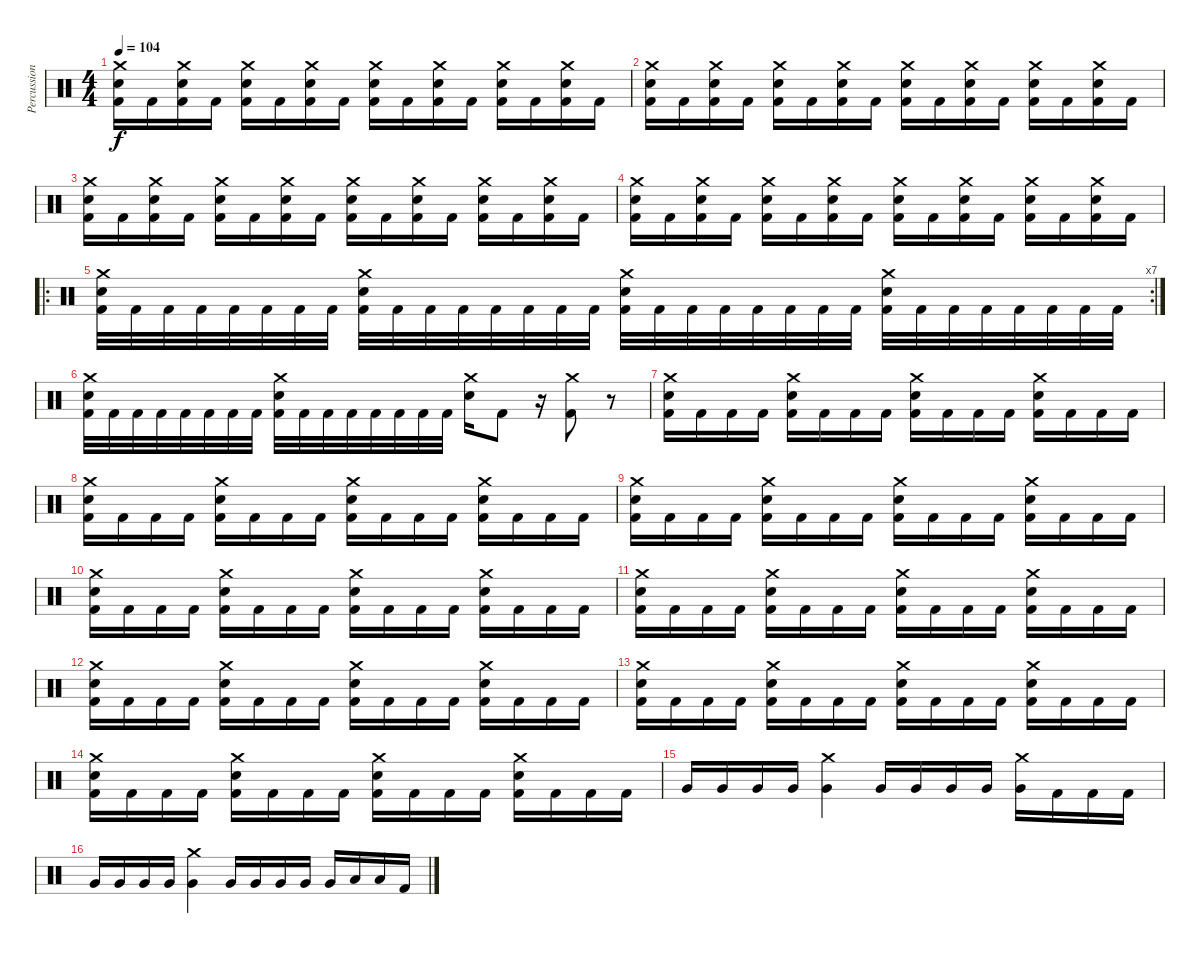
\track ("Percussion" "Percussion") {instrument percussion}
\staff {score}
\articulation defaults
\ts (4 4)
\tempo 104
\clef neutral
\ks c
("Crash medium (hit)" "Snare (hit) 2" "Kick (hit) 2").16{dy f} "Kick (hit) 2".16 ("Crash medium (hit)" "Snare (hit) 2" "Kick (hit) 2").16 "Kick (hit) 2".16 ("Crash medium (hit)" "Snare (hit) 2" "Kick (hit) 2").16 "Kick (hit) 2".16 ("Crash medium (hit)" "Snare (hit) 2" "Kick (hit) 2").16 "Kick (hit) 2".16 ("Crash medium (hit)" "Snare (hit) 2" "Kick (hit) 2").16 "Kick (hit) 2".16 ("Crash medium (hit)" "Snare (hit) 2" "Kick (hit) 2").16 "Kick (hit) 2".16 ("Crash medium (hit)" "Snare (hit) 2" "Kick (hit) 2").16 "Kick (hit) 2".16 ("Crash medium (hit)" "Snare (hit) 2" "Kick (hit) 2").16 "Kick (hit) 2".16 |
("Crash medium (hit)" "Snare (hit) 2" "Kick (hit) 2").16 "Kick (hit) 2".16 ("Crash medium (hit)" "Snare (hit) 2" "Kick (hit) 2").16 "Kick (hit) 2".16 ("Crash medium (hit)" "Snare (hit) 2" "Kick (hit) 2").16 "Kick (hit) 2".16 ("Crash medium (hit)" "Snare (hit) 2" "Kick (hit) 2").16 "Kick (hit) 2".16 ("Crash medium (hit)" "Snare (hit) 2" "Kick (hit) 2").16 "Kick (hit) 2".16 ("Crash medium (hit)" "Snare (hit) 2" "Kick (hit) 2").16 "Kick (hit) 2".16 ("Crash medium (hit)" "Snare (hit) 2" "Kick (hit) 2").16 "Kick (hit) 2".16 ("Crash medium (hit)" "Snare (hit) 2" "Kick (hit) 2").16 "Kick (hit) 2".16 |
("Crash medium (hit)" "Snare (hit) 2" "Kick (hit) 2").16 "Kick (hit) 2".16 ("Crash medium (hit)" "Snare (hit) 2" "Kick (hit) 2").16 "Kick (hit) 2".16 ("Crash medium (hit)" "Snare (hit) 2" "Kick (hit) 2").16 "Kick (hit) 2".16 ("Crash medium (hit)" "Snare (hit) 2" "Kick (hit) 2").16 "Kick (hit) 2".16 ("Crash medium (hit)" "Snare (hit) 2" "Kick (hit) 2").16 "Kick (hit) 2".16 ("Crash medium (hit)" "Snare (hit) 2" "Kick (hit) 2").16 "Kick (hit) 2".16 ("Crash medium (hit)" "Snare (hit) 2" "Kick (hit) 2").16 "Kick (hit) 2".16 ("Crash medium (hit)" "Snare (hit) 2" "Kick (hit) 2").16 "Kick (hit) 2".16 |
("Crash medium (hit)" "Snare (hit) 2" "Kick (hit) 2").16 "Kick (hit) 2".16 ("Crash medium (hit)" "Snare (hit) 2" "Kick (hit) 2").16 "Kick (hit) 2".16 ("Crash medium (hit)" "Snare (hit) 2" "Kick (hit) 2").16 "Kick (hit) 2".16 ("Crash medium (hit)" "Snare (hit) 2" "Kick (hit) 2").16 "Kick (hit) 2".16 ("Crash medium (hit)" "Snare (hit) 2" "Kick (hit) 2").16 "Kick (hit) 2".16 ("Crash medium (hit)" "Snare (hit) 2" "Kick (hit) 2").16 "Kick (hit) 2".16 ("Crash medium (hit)" "Snare (hit) 2" "Kick (hit) 2").16 "Kick (hit) 2".16 ("Crash medium (hit)" "Snare (hit) 2" "Kick (hit) 2").16 "Kick (hit) 2".16 |
\ro
\rc 7
("Crash medium (hit)" "Snare (hit) 2" "Kick (hit) 2").32 "Kick (hit) 2".32 "Kick (hit) 2".32 "Kick (hit) 2".32 "Kick (hit) 2".32 "Kick (hit) 2".32 "Kick (hit) 2".32 "Kick (hit) 2".32 ("Crash medium (hit)" "Snare (hit) 2" "Kick (hit) 2").32 "Kick (hit) 2".32 "Kick (hit) 2".32 "Kick (hit) 2".32 "Kick (hit) 2".32 "Kick (hit) 2".32 "Kick (hit) 2".32 "Kick (hit) 2".32 ("Crash medium (hit)" "Snare (hit) 2" "Kick (hit) 2").32 "Kick (hit) 2".32 "Kick (hit) 2".32 "Kick (hit) 2".32 "Kick (hit) 2".32 "Kick (hit) 2".32 "Kick (hit) 2".32 "Kick (hit) 2".32 ("Crash medium (hit)" "Snare (hit) 2" "Kick (hit) 2").32 "Kick (hit) 2".32 "Kick (hit) 2".32 "Kick (hit) 2".32 "Kick (hit) 2".32 "Kick (hit) 2".32 "Kick (hit) 2".32 "Kick (hit) 2".32 |
("Crash medium (hit)" "Snare (hit) 2" "Kick (hit) 2").32 "Kick (hit) 2".32 "Kick (hit) 2".32 "Kick (hit) 2".32 "Kick (hit) 2".32 "Kick (hit) 2".32 "Kick (hit) 2".32 "Kick (hit) 2".32 ("Crash medium (hit)" "Snare (hit) 2" "Kick (hit) 2").32 "Kick (hit) 2".32 "Kick (hit) 2".32 "Kick (hit) 2".32 "Kick (hit) 2".32 "Kick (hit) 2".32 "Kick (hit) 2".32 "Kick (hit) 2".32 ("Crash medium (hit)" "Snare (hit) 2").16 "Kick (hit) 2".8 r.16 ("Crash medium (hit)" "Kick (hit) 2").8 r.8 |
("Crash medium (hit)" "Snare (hit) 2" "Kick (hit) 2").16 "Kick (hit) 2".16 "Kick (hit) 2".16 "Kick (hit) 2".16 ("Crash medium (hit)" "Snare (hit) 2" "Kick (hit) 2").16 "Kick (hit) 2".16 "Kick (hit) 2".16 "Kick (hit) 2".16 ("Crash medium (hit)" "Snare (hit) 2" "Kick (hit) 2").16 "Kick (hit) 2".16 "Kick (hit) 2".16 "Kick (hit) 2".16 ("Crash medium (hit)" "Snare (hit) 2" "Kick (hit) 2").16 "Kick (hit) 2".16 "Kick (hit) 2".16 "Kick (hit) 2".16 |
("Crash medium (hit)" "Snare (hit) 2" "Kick (hit) 2").16 "Kick (hit) 2".16 "Kick (hit) 2".16 "Kick (hit) 2".16 ("Crash medium (hit)" "Snare (hit) 2" "Kick (hit) 2").16 "Kick (hit) 2".16 "Kick (hit) 2".16 "Kick (hit) 2".16 ("Crash medium (hit)" "Snare (hit) 2" "Kick (hit) 2").16 "Kick (hit) 2".16 "Kick (hit) 2".16 "Kick (hit) 2".16 ("Crash medium (hit)" "Snare (hit) 2" "Kick (hit) 2").16 "Kick (hit) 2".16 "Kick (hit) 2".16 "Kick (hit) 2".16 |
("Crash medium (hit)" "Snare (hit) 2" "Kick (hit) 2").16 "Kick (hit) 2".16 "Kick (hit) 2".16 "Kick (hit) 2".16 ("Crash medium (hit)" "Snare (hit) 2" "Kick (hit) 2").16 "Kick (hit) 2".16 "Kick (hit) 2".16 "Kick (hit) 2".16 ("Crash medium (hit)" "Snare (hit) 2" "Kick (hit) 2").16 "Kick (hit) 2".16 "Kick (hit) 2".16 "Kick (hit) 2".16 ("Crash medium (hit)" "Snare (hit) 2" "Kick (hit) 2").16 "Kick (hit) 2".16 "Kick (hit) 2".16 "Kick (hit) 2".16 |
("Crash medium (hit)" "Snare (hit) 2" "Kick (hit) 2").16 "Kick (hit) 2".16 "Kick (hit) 2".16 "Kick (hit) 2".16 ("Crash medium (hit)" "Snare (hit) 2" "Kick (hit) 2").16 "Kick (hit) 2".16 "Kick (hit) 2".16 "Kick (hit) 2".16 ("Crash medium (hit)" "Snare (hit) 2" "Kick (hit) 2").16 "Kick (hit) 2".16 "Kick (hit) 2".16 "Kick (hit) 2".16 ("Crash medium (hit)" "Snare (hit) 2" "Kick (hit) 2").16 "Kick (hit) 2".16 "Kick (hit) 2".16 "Kick (hit) 2".16 |
("Crash medium (hit)" "Snare (hit) 2" "Kick (hit) 2").16 "Kick (hit) 2".16 "Kick (hit) 2".16 "Kick (hit) 2".16 ("Crash medium (hit)" "Snare (hit) 2" "Kick (hit) 2").16 "Kick (hit) 2".16 "Kick (hit) 2".16 "Kick (hit) 2".16 ("Crash medium (hit)" "Snare (hit) 2" "Kick (hit) 2").16 "Kick (hit) 2".16 "Kick (hit) 2".16 "Kick (hit) 2".16 ("Crash medium (hit)" "Snare (hit) 2" "Kick (hit) 2").16 "Kick (hit) 2".16 "Kick (hit) 2".16 "Kick (hit) 2".16 |
("Crash medium (hit)" "Snare (hit) 2" "Kick (hit) 2").16 "Kick (hit) 2".16 "Kick (hit) 2".16 "Kick (hit) 2".16 ("Crash medium (hit)" "Snare (hit) 2" "Kick (hit) 2").16 "Kick (hit) 2".16 "Kick (hit) 2".16 "Kick (hit) 2".16 ("Crash medium (hit)" "Snare (hit) 2" "Kick (hit) 2").16 "Kick (hit) 2".16 "Kick (hit) 2".16 "Kick (hit) 2".16 ("Crash medium (hit)" "Snare (hit) 2" "Kick (hit) 2").16 "Kick (hit) 2".16 "Kick (hit) 2".16 "Kick (hit) 2".16 |
("Crash medium (hit)" "Snare (hit) 2" "Kick (hit) 2").16 "Kick (hit) 2".16 "Kick (hit) 2".16 "Kick (hit) 2".16 ("Crash medium (hit)" "Snare (hit) 2" "Kick (hit) 2").16 "Kick (hit) 2".16 "Kick (hit) 2".16 "Kick (hit) 2".16 ("Crash medium (hit)" "Snare (hit) 2" "Kick (hit) 2").16 "Kick (hit) 2".16 "Kick (hit) 2".16 "Kick (hit) 2".16 ("Crash medium (hit)" "Snare (hit) 2" "Kick (hit) 2").16 "Kick (hit) 2".16 "Kick (hit) 2".16 "Kick (hit) 2".16 |
("Crash medium (hit)" "Snare (hit) 2" "Kick (hit) 2").16 "Kick (hit) 2".16 "Kick (hit) 2".16 "Kick (hit) 2".16 ("Crash medium (hit)" "Snare (hit) 2" "Kick (hit) 2").16 "Kick (hit) 2".16 "Kick (hit) 2".16 "Kick (hit) 2".16 ("Crash medium (hit)" "Snare (hit) 2" "Kick (hit) 2").16 "Kick (hit) 2".16 "Kick (hit) 2".16 "Kick (hit) 2".16 ("Crash medium (hit)" "Snare (hit) 2" "Kick (hit) 2").16 "Kick (hit) 2".16 "Kick (hit) 2".16 "Kick (hit) 2".16 |
"Very Low Tom (hit)".16 "Very Low Tom (hit)".16 "Very Low Tom (hit)".16 "Very Low Tom (hit)".16 ("Crash medium (hit)" "Very Low Tom (hit)").4 "Very Low Tom (hit)".16 "Very Low Tom (hit)".16 "Very Low Tom (hit)".16 "Very Low Tom (hit)".16 ("Crash medium (hit)" "Very Low Tom (hit)").16 "Kick (hit) 2".16 "Kick (hit) 2".16 "Kick (hit) 2".16 |
"Very Low Tom (hit)".16 "Very Low Tom (hit)".16 "Very Low Tom (hit)".16 "Very Low Tom (hit)".16 ("Crash medium (hit)" "Very Low Tom (hit)").4 "Very Low Tom (hit)".16 "Very Low Tom (hit)".16 "Very Low Tom (hit)".16 "Very Low Tom (hit)".16 "Very Low Tom (hit)".16 "Low Floor Tom (hit)".16 "Low Floor Tom (hit)".16 "Kick (hit) 2".16
